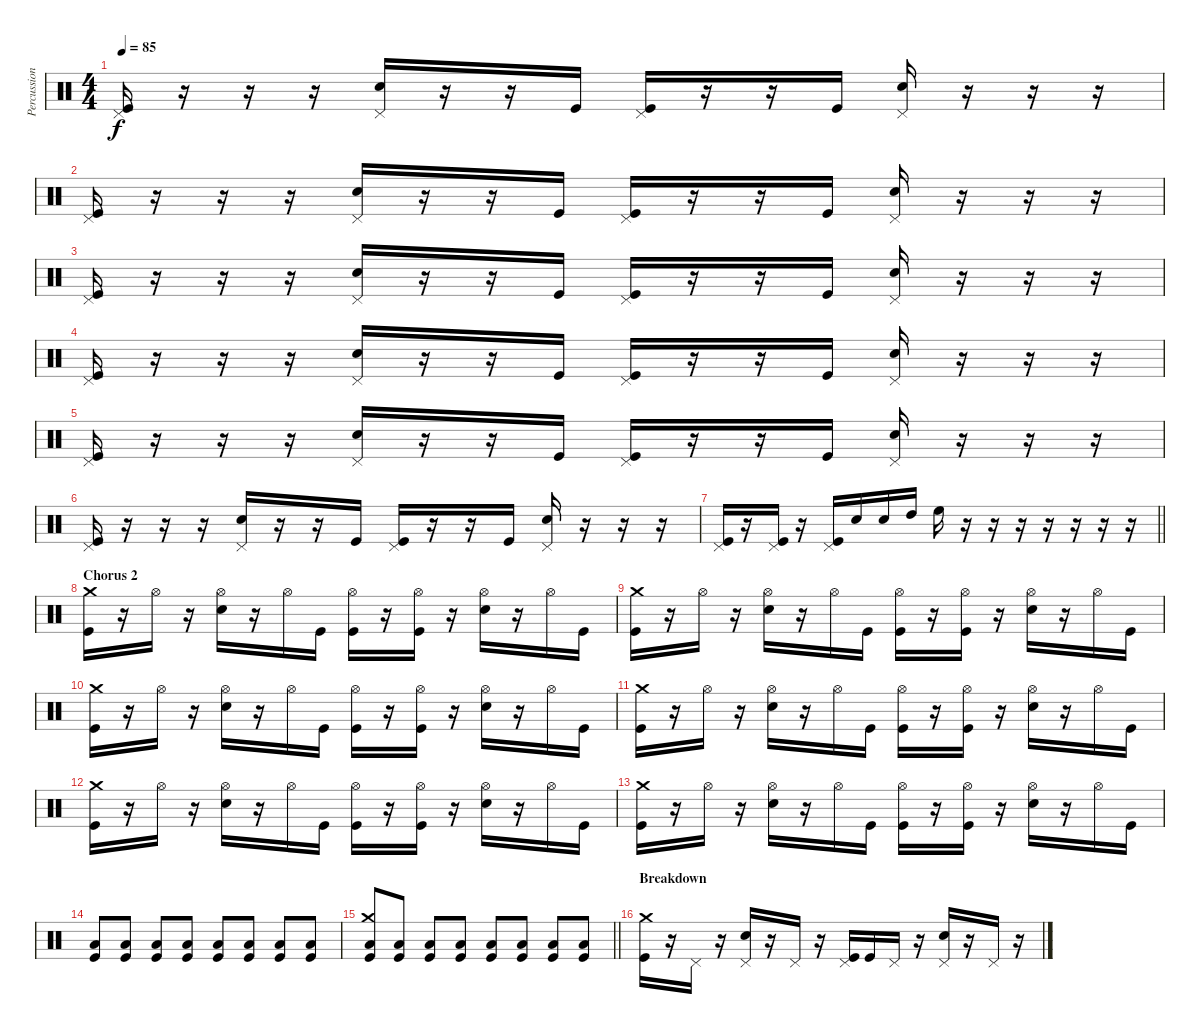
\track ("Percussion" "Percussion") {instrument percussion}
\staff {score}
\articulation defaults
\ts (4 4)
\tempo 85
\clef neutral
\ks c
("Pedal Hi-Hat (hit)" "Kick (hit)").16{dy f} r.16 r.16 r.16 ("Pedal Hi-Hat (hit)" "Snare (hit) 2").16 r.16 r.16 "Kick (hit)".16 ("Pedal Hi-Hat (hit)" "Kick (hit)").16 r.16 r.16 "Kick (hit)".16 ("Pedal Hi-Hat (hit)" "Snare (hit) 2").16 r.16 r.16 r.16 |
("Pedal Hi-Hat (hit)" "Kick (hit)").16 r.16 r.16 r.16 ("Pedal Hi-Hat (hit)" "Snare (hit) 2").16 r.16 r.16 "Kick (hit)".16 ("Pedal Hi-Hat (hit)" "Kick (hit)").16 r.16 r.16 "Kick (hit)".16 ("Pedal Hi-Hat (hit)" "Snare (hit) 2").16 r.16 r.16 r.16 |
("Pedal Hi-Hat (hit)" "Kick (hit)").16 r.16 r.16 r.16 ("Pedal Hi-Hat (hit)" "Snare (hit) 2").16 r.16 r.16 "Kick (hit)".16 ("Pedal Hi-Hat (hit)" "Kick (hit)").16 r.16 r.16 "Kick (hit)".16 ("Pedal Hi-Hat (hit)" "Snare (hit) 2").16 r.16 r.16 r.16 |
("Pedal Hi-Hat (hit)" "Kick (hit)").16 r.16 r.16 r.16 ("Pedal Hi-Hat (hit)" "Snare (hit) 2").16 r.16 r.16 "Kick (hit)".16 ("Pedal Hi-Hat (hit)" "Kick (hit)").16 r.16 r.16 "Kick (hit)".16 ("Pedal Hi-Hat (hit)" "Snare (hit) 2").16 r.16 r.16 r.16 |
("Pedal Hi-Hat (hit)" "Kick (hit)").16 r.16 r.16 r.16 ("Pedal Hi-Hat (hit)" "Snare (hit) 2").16 r.16 r.16 "Kick (hit)".16 ("Pedal Hi-Hat (hit)" "Kick (hit)").16 r.16 r.16 "Kick (hit)".16 ("Pedal Hi-Hat (hit)" "Snare (hit) 2").16 r.16 r.16 r.16 |
("Pedal Hi-Hat (hit)" "Kick (hit)").16 r.16 r.16 r.16 ("Pedal Hi-Hat (hit)" "Snare (hit) 2").16 r.16 r.16 "Kick (hit)".16 ("Pedal Hi-Hat (hit)" "Kick (hit)").16 r.16 r.16 "Kick (hit)".16 ("Pedal Hi-Hat (hit)" "Snare (hit) 2").16 r.16 r.16 r.16 |
\barLineRight lightlight
("Pedal Hi-Hat (hit)" "Kick (hit)").16 r.16 ("Pedal Hi-Hat (hit)" "Kick (hit)").16 r.16 ("Pedal Hi-Hat (hit)" "Kick (hit)").16 "Snare (hit) 2".16 "Snare (hit) 2".16 "High Tom (hit)".16 "High Floor Tom (hit)".16 r.16 r.16 r.16 r.16 r.16 r.16 r.16 |
\section ("" "Chorus 2")
("Crash medium (hit)" "Kick (hit)").16 r.16 "Hi-Hat (open)".16 r.16 ("Hi-Hat (open)" "Snare (hit) 2").16 r.16 "Hi-Hat (open)".16 "Kick (hit)".16 ("Hi-Hat (open)" "Kick (hit)").16 r.16 ("Hi-Hat (open)" "Kick (hit)").16 r.16 ("Hi-Hat (open)" "Snare (hit) 2").16 r.16 "Hi-Hat (open)".16 "Kick (hit)".16 |
("Crash medium (hit)" "Kick (hit)").16 r.16 "Hi-Hat (open)".16 r.16 ("Hi-Hat (open)" "Snare (hit) 2").16 r.16 "Hi-Hat (open)".16 "Kick (hit)".16 ("Hi-Hat (open)" "Kick (hit)").16 r.16 ("Hi-Hat (open)" "Kick (hit)").16 r.16 ("Hi-Hat (open)" "Snare (hit) 2").16 r.16 "Hi-Hat (open)".16 "Kick (hit)".16 |
("Crash medium (hit)" "Kick (hit)").16 r.16 "Hi-Hat (open)".16 r.16 ("Hi-Hat (open)" "Snare (hit) 2").16 r.16 "Hi-Hat (open)".16 "Kick (hit)".16 ("Hi-Hat (open)" "Kick (hit)").16 r.16 ("Hi-Hat (open)" "Kick (hit)").16 r.16 ("Hi-Hat (open)" "Snare (hit) 2").16 r.16 "Hi-Hat (open)".16 "Kick (hit)".16 |
("Crash medium (hit)" "Kick (hit)").16 r.16 "Hi-Hat (open)".16 r.16 ("Hi-Hat (open)" "Snare (hit) 2").16 r.16 "Hi-Hat (open)".16 "Kick (hit)".16 ("Hi-Hat (open)" "Kick (hit)").16 r.16 ("Hi-Hat (open)" "Kick (hit)").16 r.16 ("Hi-Hat (open)" "Snare (hit) 2").16 r.16 "Hi-Hat (open)".16 "Kick (hit)".16 |
("Crash medium (hit)" "Kick (hit)").16 r.16 "Hi-Hat (open)".16 r.16 ("Hi-Hat (open)" "Snare (hit) 2").16 r.16 "Hi-Hat (open)".16 "Kick (hit)".16 ("Hi-Hat (open)" "Kick (hit)").16 r.16 ("Hi-Hat (open)" "Kick (hit)").16 r.16 ("Hi-Hat (open)" "Snare (hit) 2").16 r.16 "Hi-Hat (open)".16 "Kick (hit)".16 |
("Crash medium (hit)" "Kick (hit)").16 r.16 "Hi-Hat (open)".16 r.16 ("Hi-Hat (open)" "Snare (hit) 2").16 r.16 "Hi-Hat (open)".16 "Kick (hit)".16 ("Hi-Hat (open)" "Kick (hit)").16 r.16 ("Hi-Hat (open)" "Kick (hit)").16 r.16 ("Hi-Hat (open)" "Snare (hit) 2").16 r.16 "Hi-Hat (open)".16 "Kick (hit)".16 |
("Low Floor Tom (hit)" "Kick (hit)").8 ("Low Floor Tom (hit)" "Kick (hit)").8 ("Low Floor Tom (hit)" "Kick (hit)").8 ("Low Floor Tom (hit)" "Kick (hit)").8 ("Low Floor Tom (hit)" "Kick (hit)").8 ("Low Floor Tom (hit)" "Kick (hit)").8 ("Low Floor Tom (hit)" "Kick (hit)").8 ("Low Floor Tom (hit)" "Kick (hit)").8 |
\barLineRight lightlight
("Crash medium (hit)" "Low Floor Tom (hit)" "Kick (hit)").8 ("Low Floor Tom (hit)" "Kick (hit)").8 ("Low Floor Tom (hit)" "Kick (hit)").8 ("Low Floor Tom (hit)" "Kick (hit)").8 ("Low Floor Tom (hit)" "Kick (hit)").8 ("Low Floor Tom (hit)" "Kick (hit)").8 ("Low Floor Tom (hit)" "Kick (hit)").8 ("Low Floor Tom (hit)" "Kick (hit)").8 |
\section ("" "Breakdown")
("Crash medium (hit)" "Kick (hit)").16 r.16 "Pedal Hi-Hat (hit)".16 r.16 ("Pedal Hi-Hat (hit)" "Snare (hit) 2").16 r.16 "Pedal Hi-Hat (hit)".16 r.16 ("Pedal Hi-Hat (hit)" "Kick (hit)").16 "Kick (hit)".16 "Pedal Hi-Hat (hit)".16 r.16 ("Pedal Hi-Hat (hit)" "Snare (hit) 2").16 r.16 "Pedal Hi-Hat (hit)".16 r.16
